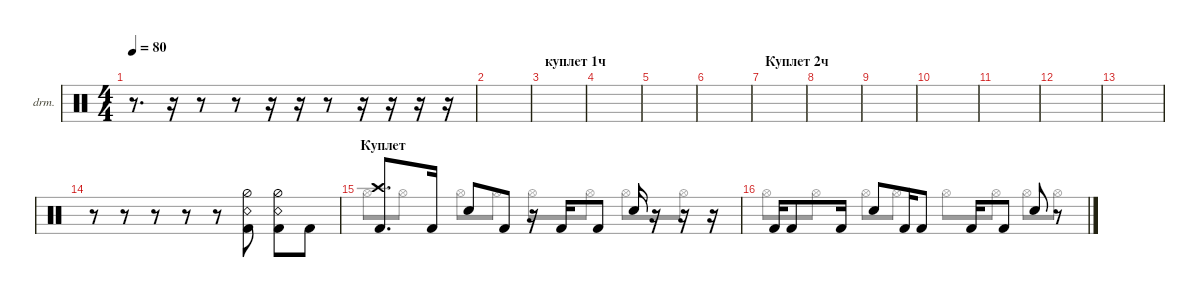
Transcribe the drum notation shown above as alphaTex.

\defaultSystemsLayout 4
\hideDynamics
\bracketExtendMode nobrackets
\firstSystemTrackNameOrientation horizontal
\otherSystemsTrackNameOrientation horizontal
\track ("Drumkit" "drm.") {instrument percussion}
\staff {score}
\articulation defaults
\voice
\ts (4 4)
\tempo 80
\clef neutral
\ks c
r.8{d dy mf beam Down} r.16{beam Down} r.8{beam Down} r.8{beam Down} r.16{beam Down} r.16{beam Down} r.8{beam Down} r.16{beam Down} r.16{beam Down} r.16{beam Down} r.16{beam Down} |
|
\section ("" "куплет 1ч")
|
|
|
|
\section ("" "Куплет 2ч")
|
|
|
|
|
|
|
r.8{beam Down} r.8{beam Down} r.8{beam Down} r.8{beam Down} r.8{beam Down} ("Snare (rim shot)" "Kick (hit) 2" "Hi-Hat (half)").8{beam Down} ("Snare (rim shot)" "Kick (hit) 2" "Hi-Hat (half)").8{beam Down} "Kick (hit) 2".8{beam Down} |
\section ("" "Куплет")
("Kick (hit) 2" "Crash high (hit)").8{d beam Up} "Kick (hit) 2".16{beam Up} "Snare (hit) 2".8{beam Up} "Kick (hit) 2".8{beam Up} r.16{beam Up} "Kick (hit) 2".16{beam Up} "Kick (hit) 2".8{beam Up} "Snare (hit) 2".16{beam Up} r.16{beam Up} r.16{beam Up} r.16{beam Up} |
"Kick (hit) 2".16{beam Up} "Kick (hit) 2".8{beam Up} "Kick (hit) 2".16{beam Up} "Snare (hit) 2".8{beam Up} "Kick (hit) 2".16{beam Up} "Kick (hit) 2".8{beam Up} "Kick (hit) 2".16{beam Up} "Kick (hit) 2".8{beam Up} "Snare (hit) 2".8{beam Up} r.8{beam Up}
\voice
\clef neutral
\ottava regular
\simile none
\ks c
|
|
|
|
|
|
|
|
|
|
|
|
|
|
"Hi-Hat (open)".8{beam Down} "Hi-Hat (open)".8{beam Down} "Hi-Hat (open)".8{beam Down} "Hi-Hat (open)".8{beam Down} "Hi-Hat (open)".8{beam Down} "Hi-Hat (open)".8{beam Down} "Hi-Hat (open)".8{beam Down} "Hi-Hat (open)".8{beam Down} |
"Hi-Hat (open)".8{beam Down} "Hi-Hat (open)".8{beam Down} "Hi-Hat (open)".8{beam Down} "Hi-Hat (open)".8{beam Down} "Hi-Hat (open)".8{beam Down} "Hi-Hat (open)".8{beam Down} "Hi-Hat (open)".8{beam Down} "Hi-Hat (open)".8{beam Down}
